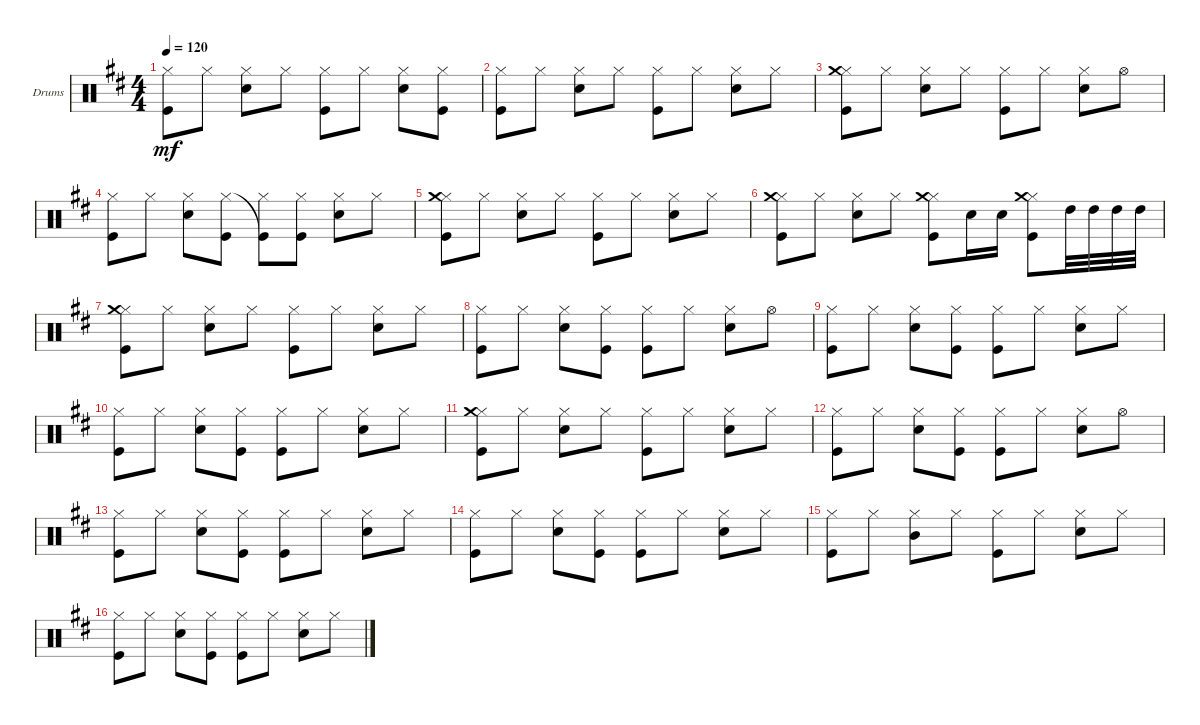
\defaultSystemsLayout 4
\bracketExtendMode groupsimilarinstruments
\firstSystemTrackNameOrientation horizontal
\otherSystemsTrackNameOrientation horizontal
\track ("Drumkit" "Drums") {instrument percussion}
\staff {score}
\articulation defaults
\ts (4 4)
\tempo 120
\clef neutral
\ks d
("Hi-Hat (closed)" "Kick (hit)").8{dy mf} "Hi-Hat (closed)".8 ("Hi-Hat (closed)" "Snare (hit) 2").8 "Hi-Hat (closed)".8 ("Hi-Hat (closed)" "Kick (hit)").8 "Hi-Hat (closed)".8 ("Hi-Hat (closed)" "Snare (hit) 2").8 ("Hi-Hat (closed)" "Kick (hit)").8 |
("Hi-Hat (closed)" "Kick (hit)").8 "Hi-Hat (closed)".8 ("Hi-Hat (closed)" "Snare (hit) 2").8 "Hi-Hat (closed)".8 ("Hi-Hat (closed)" "Kick (hit)").8 "Hi-Hat (closed)".8 ("Hi-Hat (closed)" "Snare (hit) 2").8 "Hi-Hat (closed)".8 |
("Hi-Hat (closed)" "Crash medium (hit)" "Kick (hit)").8 "Hi-Hat (closed)".8 ("Hi-Hat (closed)" "Snare (hit) 2").8 "Hi-Hat (closed)".8 ("Hi-Hat (closed)" "Kick (hit)").8 "Hi-Hat (closed)".8 ("Hi-Hat (closed)" "Snare (hit) 2").8 "Hi-Hat (open)".8 |
("Hi-Hat (closed)" "Kick (hit)").8 "Hi-Hat (closed)".8 ("Hi-Hat (closed)" "Snare (hit) 2").8 ("Kick (hit)" "Hi-Hat (closed)").8 ("Hi-Hat (closed)" "Kick (hit)"{t}).8 ("Kick (hit)" "Hi-Hat (closed)").8 ("Hi-Hat (closed)" "Snare (hit) 2").8 "Hi-Hat (closed)".8 |
("Hi-Hat (closed)" "Crash medium (hit)" "Kick (hit)").8 "Hi-Hat (closed)".8 ("Hi-Hat (closed)" "Snare (hit) 2").8 "Hi-Hat (closed)".8 ("Hi-Hat (closed)" "Kick (hit)").8 "Hi-Hat (closed)".8 ("Hi-Hat (closed)" "Snare (hit) 2").8 "Hi-Hat (closed)".8 |
("Kick (hit)" "Hi-Hat (closed)" "Crash medium (hit)").8 "Hi-Hat (closed)".8 ("Hi-Hat (closed)" "Snare (hit) 2").8 "Hi-Hat (closed)".8 ("Hi-Hat (closed)" "Crash medium (hit)" "Kick (hit)").8 "Snare (hit) 2".16 "Snare (hit) 2".16 ("Hi-Hat (closed)" "Crash medium (hit)" "Kick (hit)").8 "High Tom (hit)".32 "High Tom (hit)".32 "High Tom (hit)".32 "High Tom (hit)".32 |
("Hi-Hat (closed)" "Crash medium (hit)" "Kick (hit)").8 "Hi-Hat (closed)".8 ("Hi-Hat (closed)" "Snare (hit) 2").8 "Hi-Hat (closed)".8 ("Hi-Hat (closed)" "Kick (hit)").8 "Hi-Hat (closed)".8 ("Hi-Hat (closed)" "Snare (hit) 2").8 "Hi-Hat (closed)".8 |
("Hi-Hat (closed)" "Kick (hit)").8 "Hi-Hat (closed)".8 ("Hi-Hat (closed)" "Snare (hit) 2").8 ("Kick (hit)" "Hi-Hat (closed)").8 ("Hi-Hat (closed)" "Kick (hit)").8 "Hi-Hat (closed)".8 ("Hi-Hat (closed)" "Snare (hit) 2").8 "Hi-Hat (open)".8 |
("Hi-Hat (closed)" "Kick (hit)").8 "Hi-Hat (closed)".8 ("Hi-Hat (closed)" "Snare (hit) 2").8 ("Kick (hit)" "Hi-Hat (closed)").8 ("Hi-Hat (closed)" "Kick (hit)").8 "Hi-Hat (closed)".8 ("Hi-Hat (closed)" "Snare (hit) 2").8 "Hi-Hat (closed)".8 |
("Hi-Hat (closed)" "Kick (hit)").8 "Hi-Hat (closed)".8 ("Hi-Hat (closed)" "Snare (hit) 2").8 ("Kick (hit)" "Hi-Hat (closed)").8 ("Hi-Hat (closed)" "Kick (hit)").8 "Hi-Hat (closed)".8 ("Hi-Hat (closed)" "Snare (hit) 2").8 "Hi-Hat (closed)".8 |
("Hi-Hat (closed)" "Crash medium (hit)" "Kick (hit)").8 "Hi-Hat (closed)".8 ("Hi-Hat (closed)" "Snare (hit) 2").8 "Hi-Hat (closed)".8 ("Hi-Hat (closed)" "Kick (hit)").8 "Hi-Hat (closed)".8 ("Hi-Hat (closed)" "Snare (hit) 2").8 "Hi-Hat (closed)".8 |
("Hi-Hat (closed)" "Kick (hit)").8 "Hi-Hat (closed)".8 ("Hi-Hat (closed)" "Snare (hit) 2").8 ("Kick (hit)" "Hi-Hat (closed)").8 ("Hi-Hat (closed)" "Kick (hit)").8 "Hi-Hat (closed)".8 ("Hi-Hat (closed)" "Snare (hit) 2").8 "Hi-Hat (open)".8 |
("Hi-Hat (closed)" "Kick (hit)").8 "Hi-Hat (closed)".8 ("Hi-Hat (closed)" "Snare (hit) 2").8 ("Kick (hit)" "Hi-Hat (closed)").8 ("Hi-Hat (closed)" "Kick (hit)").8 "Hi-Hat (closed)".8 ("Hi-Hat (closed)" "Snare (hit) 2").8 "Hi-Hat (closed)".8 |
("Hi-Hat (closed)" "Kick (hit)").8 "Hi-Hat (closed)".8 ("Hi-Hat (closed)" "Snare (hit) 2").8 ("Kick (hit)" "Hi-Hat (closed)").8 ("Hi-Hat (closed)" "Kick (hit)").8 "Hi-Hat (closed)".8 ("Hi-Hat (closed)" "Snare (hit) 2").8 "Hi-Hat (closed)".8 |
("Hi-Hat (closed)" "Kick (hit)").8 "Hi-Hat (closed)".8 ("Hi-Hat (closed)" "Mid Tom (hit)").8 "Hi-Hat (closed)".8 ("Hi-Hat (closed)" "Kick (hit)").8 "Hi-Hat (closed)".8 ("Snare (hit) 2" "Hi-Hat (closed)").8 "Hi-Hat (closed)".8 |
("Hi-Hat (closed)" "Kick (hit)").8 "Hi-Hat (closed)".8 ("Hi-Hat (closed)" "Snare (hit) 2").8 ("Hi-Hat (closed)" "Kick (hit)").8 ("Hi-Hat (closed)" "Kick (hit)").8 "Hi-Hat (closed)".8 ("Hi-Hat (closed)" "Snare (hit) 2").8 "Hi-Hat (closed)".8
